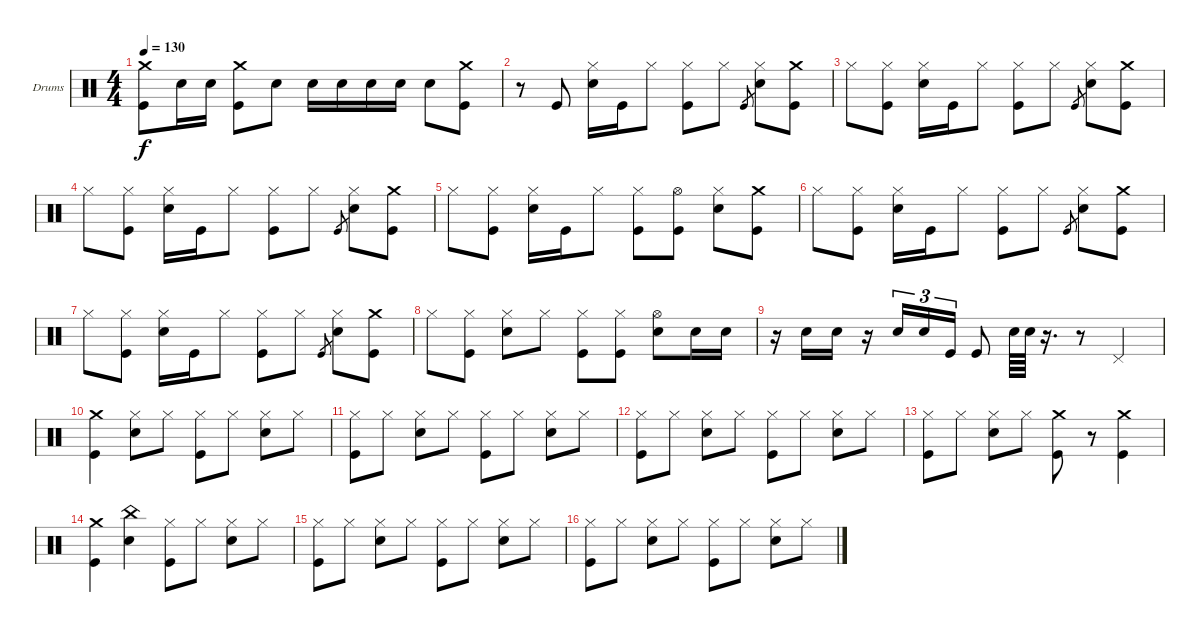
\defaultSystemsLayout 4
\bracketExtendMode groupsimilarinstruments
\firstSystemTrackNameOrientation horizontal
\otherSystemsTrackNameOrientation horizontal
\track ("Stefan Kaufmann" "Drums") {instrument percussion}
\staff {score}
\articulation defaults
\ts (4 4)
\tempo 130
\clef neutral
\ks c
("Crash medium (hit)" "Kick (hit)").8{dy f} "Snare (hit) 2".16 "Snare (hit) 2".16 ("Crash medium (hit)" "Kick (hit)").8 "Snare (hit) 2".8 "Snare (hit) 2".16 "Snare (hit) 2".16 "Snare (hit) 2".16 "Snare (hit) 2".16 "Snare (hit) 2".8 ("Crash medium (hit)" "Kick (hit)").8 |
r.8 "Kick (hit)".8 ("Hi-Hat (closed)" "Snare (hit) 2").16 "Kick (hit)".16 "Hi-Hat (closed)".8 ("Hi-Hat (closed)" "Kick (hit)").8 "Hi-Hat (closed)".8 "Kick (hit)".8{gr} ("Hi-Hat (closed)" "Snare (hit) 2").8 ("Crash medium (hit)" "Kick (hit)").8 |
"Hi-Hat (closed)".8 ("Hi-Hat (closed)" "Kick (hit)").8 ("Hi-Hat (closed)" "Snare (hit) 2").16 "Kick (hit)".16 "Hi-Hat (closed)".8 ("Hi-Hat (closed)" "Kick (hit)").8 "Hi-Hat (closed)".8 "Kick (hit)".8{gr} ("Hi-Hat (closed)" "Snare (hit) 2").8 ("Crash medium (hit)" "Kick (hit)").8 |
"Hi-Hat (closed)".8 ("Hi-Hat (closed)" "Kick (hit)").8 ("Hi-Hat (closed)" "Snare (hit) 2").16 "Kick (hit)".16 "Hi-Hat (closed)".8 ("Hi-Hat (closed)" "Kick (hit)").8 "Hi-Hat (closed)".8 "Kick (hit)".8{gr} ("Hi-Hat (closed)" "Snare (hit) 2").8 ("Crash medium (hit)" "Kick (hit)").8 |
"Hi-Hat (closed)".8 ("Hi-Hat (closed)" "Kick (hit)").8 ("Hi-Hat (closed)" "Snare (hit) 2").16 "Kick (hit)".16 "Hi-Hat (closed)".8 ("Hi-Hat (closed)" "Kick (hit)").8 ("Hi-Hat (open)" "Kick (hit)").8 ("Hi-Hat (closed)" "Snare (hit) 2").8 ("Crash medium (hit)" "Kick (hit)").8 |
"Hi-Hat (closed)".8 ("Hi-Hat (closed)" "Kick (hit)").8 ("Hi-Hat (closed)" "Snare (hit) 2").16 "Kick (hit)".16 "Hi-Hat (closed)".8 ("Hi-Hat (closed)" "Kick (hit)").8 "Hi-Hat (closed)".8 "Kick (hit)".8{gr} ("Hi-Hat (closed)" "Snare (hit) 2").8 ("Crash medium (hit)" "Kick (hit)").8 |
"Hi-Hat (closed)".8 ("Hi-Hat (closed)" "Kick (hit)").8 ("Hi-Hat (closed)" "Snare (hit) 2").16 "Kick (hit)".16 "Hi-Hat (closed)".8 ("Hi-Hat (closed)" "Kick (hit)").8 "Hi-Hat (closed)".8 "Kick (hit)".8{gr} ("Hi-Hat (closed)" "Snare (hit) 2").8 ("Crash medium (hit)" "Kick (hit)").8 |
"Hi-Hat (closed)".8 ("Hi-Hat (closed)" "Kick (hit)").8 ("Hi-Hat (closed)" "Snare (hit) 2").8 "Hi-Hat (closed)".8 ("Hi-Hat (closed)" "Kick (hit)").8 ("Hi-Hat (closed)" "Kick (hit)").8 ("Hi-Hat (open)" "Snare (hit) 2").8 "Snare (hit) 2".16 "Snare (hit) 2".16 |
r.16 "Snare (hit) 2".16 "Snare (hit) 2".16 r.16 "Snare (hit) 2".16{tu (3 2)} "Snare (hit) 2".16{tu (3 2)} "Kick (hit)".16{tu (3 2)} "Kick (hit)".8 "Snare (hit) 2".64 "Snare (hit) 2".64 r.16{d} r.8 "Pedal Hi-Hat (hit)".4 |
("Crash medium (hit)" "Kick (hit)").4 ("Hi-Hat (closed)" "Snare (hit) 2").8 "Hi-Hat (closed)".8 ("Hi-Hat (closed)" "Kick (hit)").8 "Hi-Hat (closed)".8 ("Hi-Hat (closed)" "Snare (hit) 2").8 "Hi-Hat (closed)".8 |
("Hi-Hat (closed)" "Kick (hit)").8 "Hi-Hat (closed)".8 ("Hi-Hat (closed)" "Snare (hit) 2").8 "Hi-Hat (closed)".8 ("Hi-Hat (closed)" "Kick (hit)").8 "Hi-Hat (closed)".8 ("Hi-Hat (closed)" "Snare (hit) 2").8 "Hi-Hat (closed)".8 |
("Hi-Hat (closed)" "Kick (hit)").8 "Hi-Hat (closed)".8 ("Hi-Hat (closed)" "Snare (hit) 2").8 "Hi-Hat (closed)".8 ("Hi-Hat (closed)" "Kick (hit)").8 "Hi-Hat (closed)".8 ("Hi-Hat (closed)" "Snare (hit) 2").8 "Hi-Hat (closed)".8 |
("Hi-Hat (closed)" "Kick (hit)").8 "Hi-Hat (closed)".8 ("Hi-Hat (closed)" "Snare (hit) 2").8 "Hi-Hat (closed)".8 ("Crash medium (hit)" "Kick (hit)").8 r.8 ("Crash medium (hit)" "Kick (hit)").4 |
("Crash medium (hit)" "Kick (hit)").4 ("China (hit)" "Snare (hit) 2").4 ("Hi-Hat (closed)" "Kick (hit)").8 "Hi-Hat (closed)".8 ("Hi-Hat (closed)" "Snare (hit) 2").8 "Hi-Hat (closed)".8 |
("Hi-Hat (closed)" "Kick (hit)").8 "Hi-Hat (closed)".8 ("Hi-Hat (closed)" "Snare (hit) 2").8 "Hi-Hat (closed)".8 ("Hi-Hat (closed)" "Kick (hit)").8 "Hi-Hat (closed)".8 ("Hi-Hat (closed)" "Snare (hit) 2").8 "Hi-Hat (closed)".8 |
("Hi-Hat (closed)" "Kick (hit)").8 "Hi-Hat (closed)".8 ("Hi-Hat (closed)" "Snare (hit) 2").8 "Hi-Hat (closed)".8 ("Hi-Hat (closed)" "Kick (hit)").8 "Hi-Hat (closed)".8 ("Hi-Hat (closed)" "Snare (hit) 2").8 "Hi-Hat (closed)".8
